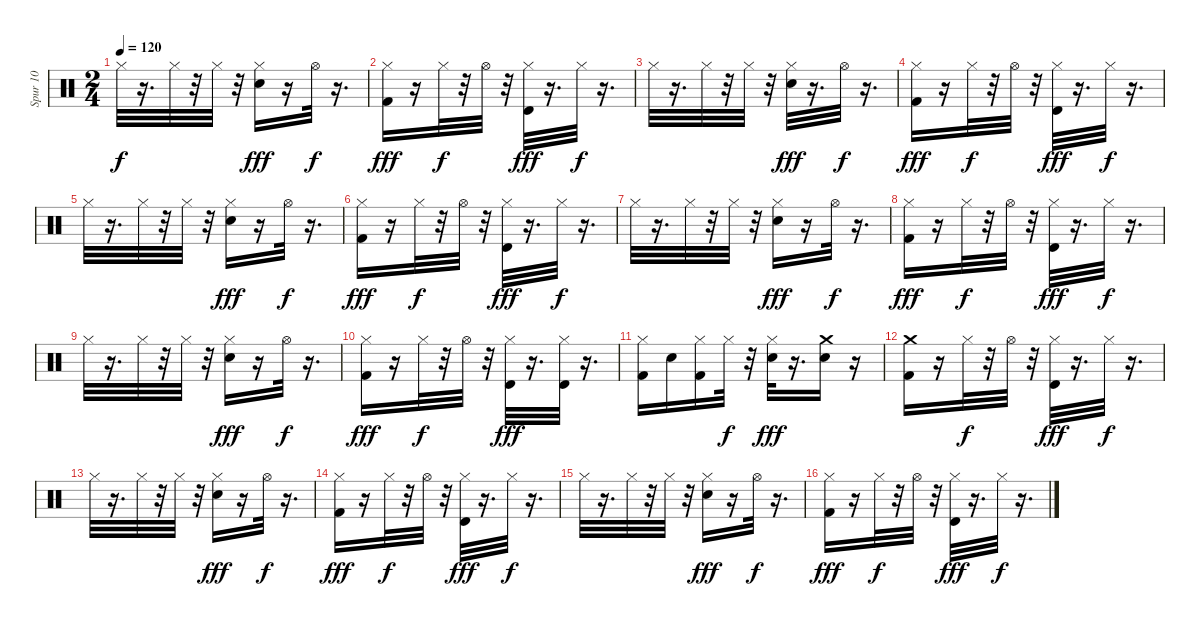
\track ("Spur 10" "Spur 10") {instrument percussion}
\staff {score}
\articulation defaults
\ts (2 4)
\tempo 120
\clef neutral
\ks c "Hi-Hat (closed)".32{dy f}
r.16{d} "Hi-Hat (closed)".32 r.32 "Hi-Hat (closed)".32 r.32 ("Electric Snare (hit)" "Hi-Hat (closed)").16{dy fff} r.16 "Hi-Hat (open)".32{dy f} r.16{d} |
("Kick (hit) 2" "Hi-Hat (closed)").16{dy fff} r.16 "Hi-Hat (closed)".32{dy f} r.32 "Hi-Hat (open)".32 r.32 ("Timbale high (hit)" "Hi-Hat (closed)").32{dy fff} r.16{d} "Hi-Hat (closed)".32{dy f} r.16{d} |
"Hi-Hat (closed)".32 r.16{d} "Hi-Hat (closed)".32 r.32 "Hi-Hat (closed)".32 r.32 ("Electric Snare (hit)" "Hi-Hat (closed)").32{dy fff} r.16{d} "Hi-Hat (open)".32{dy f} r.16{d} |
("Kick (hit) 2" "Hi-Hat (closed)").16{dy fff} r.16 "Hi-Hat (closed)".32{dy f} r.32 "Hi-Hat (open)".32 r.32 ("Timbale high (hit)" "Hi-Hat (closed)").32{dy fff} r.16{d} "Hi-Hat (closed)".32{dy f} r.16{d} |
"Hi-Hat (closed)".32 r.16{d} "Hi-Hat (closed)".32 r.32 "Hi-Hat (closed)".32 r.32 ("Electric Snare (hit)" "Hi-Hat (closed)").16{dy fff} r.16 "Hi-Hat (open)".32{dy f} r.16{d} |
("Kick (hit) 2" "Hi-Hat (closed)").16{dy fff} r.16 "Hi-Hat (closed)".32{dy f} r.32 "Hi-Hat (open)".32 r.32 ("Timbale high (hit)" "Hi-Hat (closed)").32{dy fff} r.16{d} "Hi-Hat (closed)".32{dy f} r.16{d} |
"Hi-Hat (closed)".32 r.16{d} "Hi-Hat (closed)".32 r.32 "Hi-Hat (closed)".32 r.32 ("Electric Snare (hit)" "Hi-Hat (closed)").16{dy fff} r.16 "Hi-Hat (open)".32{dy f} r.16{d} |
("Kick (hit) 2" "Hi-Hat (closed)").16{dy fff} r.16 "Hi-Hat (closed)".32{dy f} r.32 "Hi-Hat (open)".32 r.32 ("Timbale high (hit)" "Hi-Hat (closed)").32{dy fff} r.16{d} "Hi-Hat (closed)".32{dy f} r.16{d} |
"Hi-Hat (closed)".32 r.16{d} "Hi-Hat (closed)".32 r.32 "Hi-Hat (closed)".32 r.32 ("Electric Snare (hit)" "Hi-Hat (closed)").16{dy fff} r.16 "Hi-Hat (open)".32{dy f} r.16{d} |
("Kick (hit) 2" "Hi-Hat (closed)").16{dy fff} r.16 "Hi-Hat (closed)".32{dy f} r.32 "Hi-Hat (open)".32 r.32 ("Timbale high (hit)" "Hi-Hat (closed)").32{dy fff} r.16{d} ("Timbale high (hit)" "Hi-Hat (closed)").32 r.16{d} |
("Kick (hit) 2" "Hi-Hat (closed)").16 "Electric Snare (hit)".16 ("Kick (hit) 2" "Hi-Hat (closed)").16 "Hi-Hat (closed)".32{dy f} r.32 ("Electric Snare (hit)" "Hi-Hat (closed)").32{dy fff} r.16{d} ("Electric Snare (hit)" "Crash medium (hit)").16 r.16 |
("Kick (hit) 2" "Crash medium (hit)").16 r.16 "Hi-Hat (closed)".32{dy f} r.32 "Hi-Hat (open)".32 r.32 ("Timbale high (hit)" "Hi-Hat (closed)").32{dy fff} r.16{d} "Hi-Hat (closed)".32{dy f} r.16{d} |
"Hi-Hat (closed)".32 r.16{d} "Hi-Hat (closed)".32 r.32 "Hi-Hat (closed)".32 r.32 ("Electric Snare (hit)" "Hi-Hat (closed)").16{dy fff} r.16 "Hi-Hat (open)".32{dy f} r.16{d} |
("Kick (hit) 2" "Hi-Hat (closed)").16{dy fff} r.16 "Hi-Hat (closed)".32{dy f} r.32 "Hi-Hat (open)".32 r.32 ("Timbale high (hit)" "Hi-Hat (closed)").32{dy fff} r.16{d} "Hi-Hat (closed)".32{dy f} r.16{d} |
"Hi-Hat (closed)".32 r.16{d} "Hi-Hat (closed)".32 r.32 "Hi-Hat (closed)".32 r.32 ("Electric Snare (hit)" "Hi-Hat (closed)").16{dy fff} r.16 "Hi-Hat (open)".32{dy f} r.16{d} |
("Kick (hit) 2" "Hi-Hat (closed)").16{dy fff} r.16 "Hi-Hat (closed)".32{dy f} r.32 "Hi-Hat (open)".32 r.32 ("Timbale high (hit)" "Hi-Hat (closed)").32{dy fff} r.16{d} "Hi-Hat (closed)".32{dy f} r.16{d}
